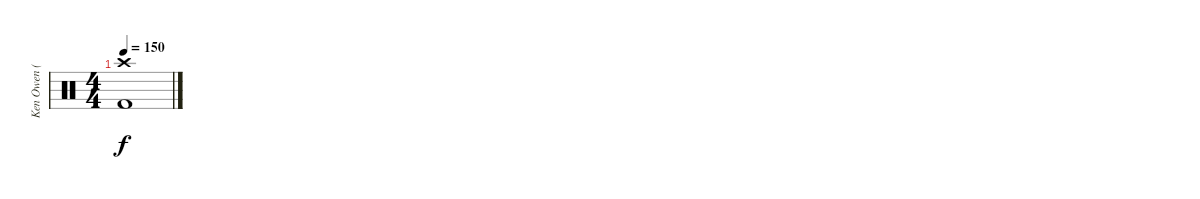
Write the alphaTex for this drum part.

\track ("Ken Owen (Drums)" "Ken Owen (") {instrument percussion}
\staff {score}
\articulation defaults
\ts (4 4)
\tempo 150
\clef neutral
\ks c
("Crash high (hit)" "Kick (hit) 2").1{dy f}
